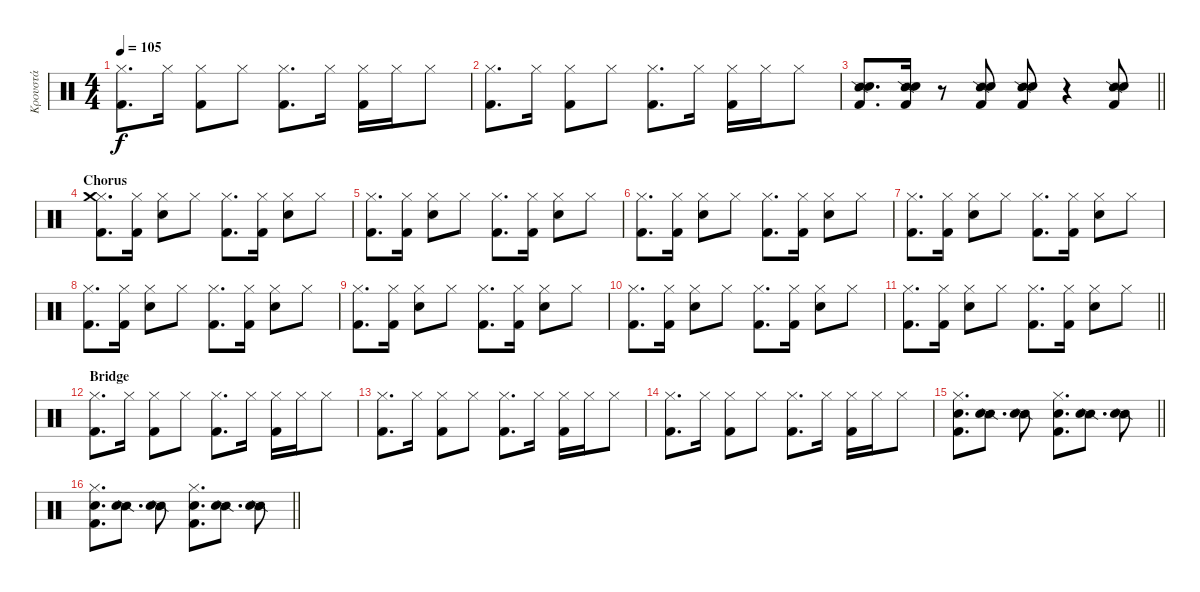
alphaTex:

\track ("Κρουστά" "Κρουστά") {instrument percussion}
\staff {score}
\articulation defaults
\ts (4 4)
\tempo 105
\clef neutral
\ks c
("Hi-Hat (closed)" "Kick (hit) 2").8{d dy f} "Hi-Hat (closed)".16 ("Hi-Hat (closed)" "Kick (hit) 2").8 "Hi-Hat (closed)".8 ("Hi-Hat (closed)" "Kick (hit) 2").8{d} "Hi-Hat (closed)".16 ("Hi-Hat (closed)" "Kick (hit) 2").16 "Hi-Hat (closed)".16 "Hi-Hat (closed)".8 |
("Hi-Hat (closed)" "Kick (hit) 2").8{d} "Hi-Hat (closed)".16 ("Hi-Hat (closed)" "Kick (hit) 2").8 "Hi-Hat (closed)".8 ("Hi-Hat (closed)" "Kick (hit) 2").8{d} "Hi-Hat (closed)".16 ("Hi-Hat (closed)" "Kick (hit) 2").16 "Hi-Hat (closed)".16 "Hi-Hat (closed)".8 |
\barLineRight lightlight
("Kick (hit) 2" "Snare (side stick) 2" "Electric Snare (hit)").8{d} ("Kick (hit) 2" "Snare (side stick) 2" "Electric Snare (hit)").16 r.8 ("Kick (hit) 2" "Snare (side stick) 2" "Electric Snare (hit)").8 ("Kick (hit) 2" "Snare (side stick) 2" "Electric Snare (hit)").8 r.4 ("Kick (hit) 2" "Snare (side stick) 2" "Electric Snare (hit)").8 |
\section ("" "Chorus")
("Hi-Hat (closed)" "Kick (hit) 2" "Crash medium (hit)").8{d} ("Hi-Hat (closed)" "Kick (hit) 2").16 ("Hi-Hat (closed)" "Electric Snare (hit)").8 "Hi-Hat (closed)".8 ("Hi-Hat (closed)" "Kick (hit) 2").8{d} ("Hi-Hat (closed)" "Kick (hit) 2").16 ("Hi-Hat (closed)" "Electric Snare (hit)").8 "Hi-Hat (closed)".8 |
("Hi-Hat (closed)" "Kick (hit) 2").8{d} ("Hi-Hat (closed)" "Kick (hit) 2").16 ("Hi-Hat (closed)" "Electric Snare (hit)").8 "Hi-Hat (closed)".8 ("Hi-Hat (closed)" "Kick (hit) 2").8{d} ("Hi-Hat (closed)" "Kick (hit) 2").16 ("Hi-Hat (closed)" "Electric Snare (hit)").8 "Hi-Hat (closed)".8 |
("Hi-Hat (closed)" "Kick (hit) 2").8{d} ("Hi-Hat (closed)" "Kick (hit) 2").16 ("Hi-Hat (closed)" "Electric Snare (hit)").8 "Hi-Hat (closed)".8 ("Hi-Hat (closed)" "Kick (hit) 2").8{d} ("Hi-Hat (closed)" "Kick (hit) 2").16 ("Hi-Hat (closed)" "Electric Snare (hit)").8 "Hi-Hat (closed)".8 |
("Hi-Hat (closed)" "Kick (hit) 2").8{d} ("Hi-Hat (closed)" "Kick (hit) 2").16 ("Hi-Hat (closed)" "Electric Snare (hit)").8 "Hi-Hat (closed)".8 ("Hi-Hat (closed)" "Kick (hit) 2").8{d} ("Hi-Hat (closed)" "Kick (hit) 2").16 ("Hi-Hat (closed)" "Electric Snare (hit)").8 "Hi-Hat (closed)".8 |
("Hi-Hat (closed)" "Kick (hit) 2").8{d} ("Hi-Hat (closed)" "Kick (hit) 2").16 ("Hi-Hat (closed)" "Electric Snare (hit)").8 "Hi-Hat (closed)".8 ("Hi-Hat (closed)" "Kick (hit) 2").8{d} ("Hi-Hat (closed)" "Kick (hit) 2").16 ("Hi-Hat (closed)" "Electric Snare (hit)").8 "Hi-Hat (closed)".8 |
("Hi-Hat (closed)" "Kick (hit) 2").8{d} ("Hi-Hat (closed)" "Kick (hit) 2").16 ("Hi-Hat (closed)" "Electric Snare (hit)").8 "Hi-Hat (closed)".8 ("Hi-Hat (closed)" "Kick (hit) 2").8{d} ("Hi-Hat (closed)" "Kick (hit) 2").16 ("Hi-Hat (closed)" "Electric Snare (hit)").8 "Hi-Hat (closed)".8 |
("Hi-Hat (closed)" "Kick (hit) 2").8{d} ("Hi-Hat (closed)" "Kick (hit) 2").16 ("Hi-Hat (closed)" "Electric Snare (hit)").8 "Hi-Hat (closed)".8 ("Hi-Hat (closed)" "Kick (hit) 2").8{d} ("Hi-Hat (closed)" "Kick (hit) 2").16 ("Hi-Hat (closed)" "Electric Snare (hit)").8 "Hi-Hat (closed)".8 |
\barLineRight lightlight
("Hi-Hat (closed)" "Kick (hit) 2").8{d} ("Hi-Hat (closed)" "Kick (hit) 2").16 ("Hi-Hat (closed)" "Electric Snare (hit)").8 "Hi-Hat (closed)".8 ("Hi-Hat (closed)" "Kick (hit) 2").8{d} ("Hi-Hat (closed)" "Kick (hit) 2").16 ("Hi-Hat (closed)" "Electric Snare (hit)").8 "Hi-Hat (closed)".8 |
\section ("" "Bridge")
("Hi-Hat (closed)" "Kick (hit) 2").8{d} "Hi-Hat (closed)".16 ("Hi-Hat (closed)" "Kick (hit) 2").8 "Hi-Hat (closed)".8 ("Hi-Hat (closed)" "Kick (hit) 2").8{d} "Hi-Hat (closed)".16 ("Hi-Hat (closed)" "Kick (hit) 2").16 "Hi-Hat (closed)".16 "Hi-Hat (closed)".8 |
("Hi-Hat (closed)" "Kick (hit) 2").8{d} "Hi-Hat (closed)".16 ("Hi-Hat (closed)" "Kick (hit) 2").8 "Hi-Hat (closed)".8 ("Hi-Hat (closed)" "Kick (hit) 2").8{d} "Hi-Hat (closed)".16 ("Hi-Hat (closed)" "Kick (hit) 2").16 "Hi-Hat (closed)".16 "Hi-Hat (closed)".8 |
("Hi-Hat (closed)" "Kick (hit) 2").8{d} "Hi-Hat (closed)".16 ("Hi-Hat (closed)" "Kick (hit) 2").8 "Hi-Hat (closed)".8 ("Hi-Hat (closed)" "Kick (hit) 2").8{d} "Hi-Hat (closed)".16 ("Hi-Hat (closed)" "Kick (hit) 2").16 "Hi-Hat (closed)".16 "Hi-Hat (closed)".8 |
\barLineRight lightlight
("Kick (hit) 2" "Hi-Hat (closed)" "Electric Snare (hit)").8{d} ("Snare (side stick) 2" "Electric Snare (hit)").8{d} ("Snare (side stick) 2" "Electric Snare (hit)").8 ("Kick (hit) 2" "Hi-Hat (closed)" "Electric Snare (hit)").8{d} ("Snare (side stick) 2" "Electric Snare (hit)").8{d} ("Snare (side stick) 2" "Electric Snare (hit)").8 |
\barLineRight lightlight
("Kick (hit) 2" "Hi-Hat (closed)" "Electric Snare (hit)").8{d} ("Snare (side stick) 2" "Electric Snare (hit)").8{d} ("Snare (side stick) 2" "Electric Snare (hit)").8 ("Kick (hit) 2" "Hi-Hat (closed)" "Electric Snare (hit)").8{d} ("Snare (side stick) 2" "Electric Snare (hit)").8{d} ("Snare (side stick) 2" "Electric Snare (hit)").8
